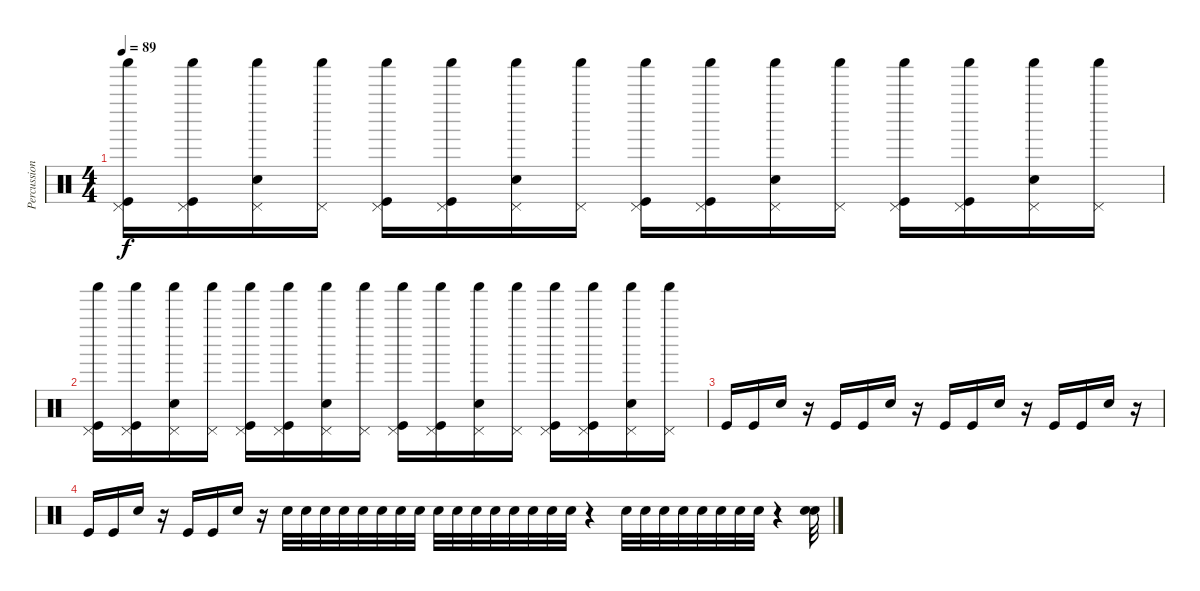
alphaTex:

\track ("Percussion" "Percussion") {instrument percussion}
\staff {score}
\articulation defaults
\ts (4 4)
\tempo 89
\clef neutral
\ks c
("Pedal Hi-Hat (hit)" "Shaker (hit)" "Kick (hit)").16{dy f} ("Pedal Hi-Hat (hit)" "Shaker (hit)" "Kick (hit)").16 ("Pedal Hi-Hat (hit)" "Shaker (hit)" "Snare (hit) 2").16 ("Pedal Hi-Hat (hit)" "Shaker (hit)").16 ("Pedal Hi-Hat (hit)" "Shaker (hit)" "Kick (hit)").16 ("Pedal Hi-Hat (hit)" "Shaker (hit)" "Kick (hit)").16 ("Pedal Hi-Hat (hit)" "Shaker (hit)" "Snare (hit) 2").16 ("Pedal Hi-Hat (hit)" "Shaker (hit)").16 ("Pedal Hi-Hat (hit)" "Shaker (hit)" "Kick (hit)").16 ("Pedal Hi-Hat (hit)" "Shaker (hit)" "Kick (hit)").16 ("Pedal Hi-Hat (hit)" "Shaker (hit)" "Snare (hit) 2").16 ("Pedal Hi-Hat (hit)" "Shaker (hit)").16 ("Pedal Hi-Hat (hit)" "Shaker (hit)" "Kick (hit)").16 ("Pedal Hi-Hat (hit)" "Shaker (hit)" "Kick (hit)").16 ("Pedal Hi-Hat (hit)" "Shaker (hit)" "Snare (hit) 2").16 ("Pedal Hi-Hat (hit)" "Shaker (hit)").16 |
("Pedal Hi-Hat (hit)" "Shaker (hit)" "Kick (hit)").16 ("Pedal Hi-Hat (hit)" "Shaker (hit)" "Kick (hit)").16 ("Pedal Hi-Hat (hit)" "Shaker (hit)" "Snare (hit) 2").16 ("Pedal Hi-Hat (hit)" "Shaker (hit)").16 ("Pedal Hi-Hat (hit)" "Shaker (hit)" "Kick (hit)").16 ("Pedal Hi-Hat (hit)" "Shaker (hit)" "Kick (hit)").16 ("Pedal Hi-Hat (hit)" "Shaker (hit)" "Snare (hit) 2").16 ("Pedal Hi-Hat (hit)" "Shaker (hit)").16 ("Pedal Hi-Hat (hit)" "Shaker (hit)" "Kick (hit)").16 ("Pedal Hi-Hat (hit)" "Shaker (hit)" "Kick (hit)").16 ("Pedal Hi-Hat (hit)" "Shaker (hit)" "Snare (hit) 2").16 ("Pedal Hi-Hat (hit)" "Shaker (hit)").16 ("Pedal Hi-Hat (hit)" "Shaker (hit)" "Kick (hit)").16 ("Pedal Hi-Hat (hit)" "Shaker (hit)" "Kick (hit)").16 ("Pedal Hi-Hat (hit)" "Shaker (hit)" "Snare (hit) 2").16 ("Pedal Hi-Hat (hit)" "Shaker (hit)").16 |
"Kick (hit)".16 "Kick (hit)".16 "Snare (hit) 2".16 r.16 "Kick (hit)".16 "Kick (hit)".16 "Snare (hit) 2".16 r.16 "Kick (hit)".16 "Kick (hit)".16 "Snare (hit) 2".16 r.16 "Kick (hit)".16 "Kick (hit)".16 "Snare (hit) 2".16 r.16 |
"Kick (hit)".16 "Kick (hit)".16 "Snare (hit) 2".16 r.16 "Kick (hit)".16 "Kick (hit)".16 "Snare (hit) 2".16 r.16 "Electric Snare (hit)".32 "Electric Snare (hit)".32 "Electric Snare (hit)".32 "Electric Snare (hit)".32 "Electric Snare (hit)".32 "Electric Snare (hit)".32 "Electric Snare (hit)".32 "Electric Snare (hit)".32 "Electric Snare (hit)".32 "Electric Snare (hit)".32 "Electric Snare (hit)".32 "Electric Snare (hit)".32 "Electric Snare (hit)".32 "Electric Snare (hit)".32 "Electric Snare (hit)".32 "Electric Snare (hit)".32 r.4 "Electric Snare (hit)".32 "Electric Snare (hit)".32 "Electric Snare (hit)".32 "Electric Snare (hit)".32 "Electric Snare (hit)".32 "Electric Snare (hit)".32 "Electric Snare (hit)".32 "Electric Snare (hit)".32 r.4 ("Electric Snare (hit)" "Electric Snare (hit)").32
